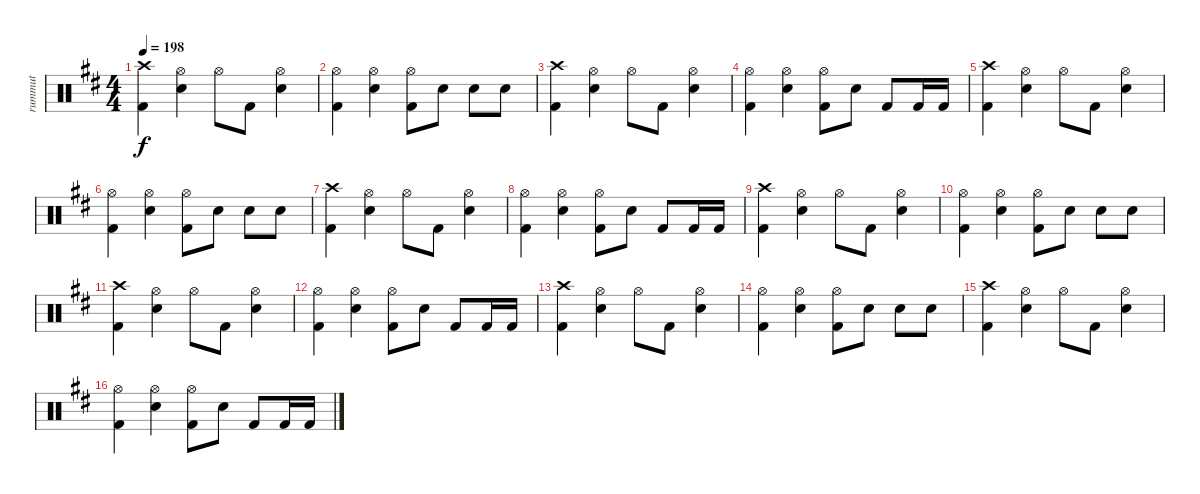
\track ("rummut" "rummut") {instrument percussion}
\staff {score}
\articulation defaults
\ts (4 4)
\tempo 198
\clef neutral
\ks d
("Crash high (hit)" "Kick (hit) 2").4{dy f} ("Hi-Hat (open)" "Electric Snare (hit)").4 "Hi-Hat (open)".8 "Kick (hit) 2".8 ("Hi-Hat (open)" "Electric Snare (hit)").4 |
("Hi-Hat (open)" "Kick (hit) 2").4 ("Hi-Hat (open)" "Electric Snare (hit)").4 ("Hi-Hat (open)" "Kick (hit) 2").8 "Electric Snare (hit)".8 "Electric Snare (hit)".8 "Electric Snare (hit)".8 |
("Crash high (hit)" "Kick (hit) 2").4 ("Hi-Hat (open)" "Electric Snare (hit)").4 "Hi-Hat (open)".8 "Kick (hit) 2".8 ("Hi-Hat (open)" "Electric Snare (hit)").4 |
("Hi-Hat (open)" "Kick (hit) 2").4 ("Hi-Hat (open)" "Electric Snare (hit)").4 ("Hi-Hat (open)" "Kick (hit) 2").8 "Electric Snare (hit)".8 "Kick (hit) 2".8 "Kick (hit) 2".16 "Kick (hit) 2".16 |
("Crash high (hit)" "Kick (hit) 2").4 ("Hi-Hat (open)" "Electric Snare (hit)").4 "Hi-Hat (open)".8 "Kick (hit) 2".8 ("Hi-Hat (open)" "Electric Snare (hit)").4 |
("Hi-Hat (open)" "Kick (hit) 2").4 ("Hi-Hat (open)" "Electric Snare (hit)").4 ("Hi-Hat (open)" "Kick (hit) 2").8 "Electric Snare (hit)".8 "Electric Snare (hit)".8 "Electric Snare (hit)".8 |
("Crash high (hit)" "Kick (hit) 2").4 ("Hi-Hat (open)" "Electric Snare (hit)").4 "Hi-Hat (open)".8 "Kick (hit) 2".8 ("Hi-Hat (open)" "Electric Snare (hit)").4 |
("Hi-Hat (open)" "Kick (hit) 2").4 ("Hi-Hat (open)" "Electric Snare (hit)").4 ("Hi-Hat (open)" "Kick (hit) 2").8 "Electric Snare (hit)".8 "Kick (hit) 2".8 "Kick (hit) 2".16 "Kick (hit) 2".16 |
("Crash high (hit)" "Kick (hit) 2").4 ("Hi-Hat (open)" "Electric Snare (hit)").4 "Hi-Hat (open)".8 "Kick (hit) 2".8 ("Hi-Hat (open)" "Electric Snare (hit)").4 |
("Hi-Hat (open)" "Kick (hit) 2").4 ("Hi-Hat (open)" "Electric Snare (hit)").4 ("Hi-Hat (open)" "Kick (hit) 2").8 "Electric Snare (hit)".8 "Electric Snare (hit)".8 "Electric Snare (hit)".8 |
("Crash high (hit)" "Kick (hit) 2").4 ("Hi-Hat (open)" "Electric Snare (hit)").4 "Hi-Hat (open)".8 "Kick (hit) 2".8 ("Hi-Hat (open)" "Electric Snare (hit)").4 |
("Hi-Hat (open)" "Kick (hit) 2").4 ("Hi-Hat (open)" "Electric Snare (hit)").4 ("Hi-Hat (open)" "Kick (hit) 2").8 "Electric Snare (hit)".8 "Kick (hit) 2".8 "Kick (hit) 2".16 "Kick (hit) 2".16 |
("Crash high (hit)" "Kick (hit) 2").4 ("Hi-Hat (open)" "Electric Snare (hit)").4 "Hi-Hat (open)".8 "Kick (hit) 2".8 ("Hi-Hat (open)" "Electric Snare (hit)").4 |
("Hi-Hat (open)" "Kick (hit) 2").4 ("Hi-Hat (open)" "Electric Snare (hit)").4 ("Hi-Hat (open)" "Kick (hit) 2").8 "Electric Snare (hit)".8 "Electric Snare (hit)".8 "Electric Snare (hit)".8 |
("Crash high (hit)" "Kick (hit) 2").4 ("Hi-Hat (open)" "Electric Snare (hit)").4 "Hi-Hat (open)".8 "Kick (hit) 2".8 ("Hi-Hat (open)" "Electric Snare (hit)").4 |
("Hi-Hat (open)" "Kick (hit) 2").4 ("Hi-Hat (open)" "Electric Snare (hit)").4 ("Hi-Hat (open)" "Kick (hit) 2").8 "Electric Snare (hit)".8 "Kick (hit) 2".8 "Kick (hit) 2".16 "Kick (hit) 2".16
